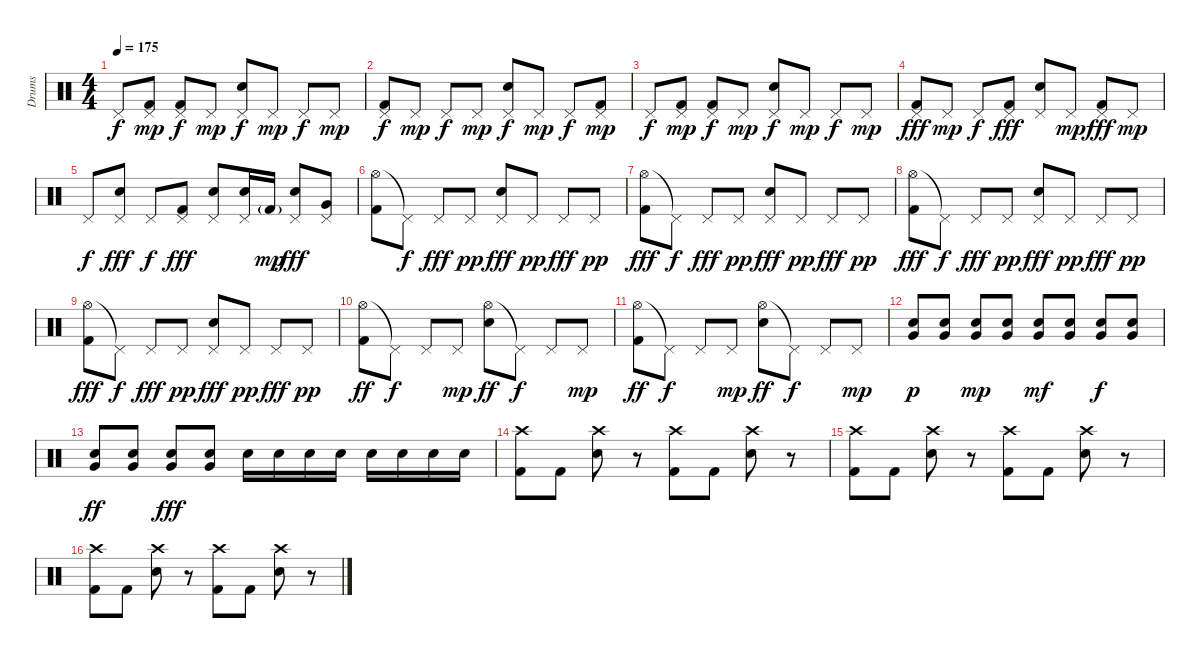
\track ("Drums" "Drums") {instrument percussion}
\staff {score}
\articulation defaults
\ts (4 4)
\tempo 175
\clef neutral
\ks c "Pedal Hi-Hat (hit)".8{dy f}
("Pedal Hi-Hat (hit)" "Kick (hit) 2").8{dy mp} ("Pedal Hi-Hat (hit)" "Kick (hit) 2").8{dy f} "Pedal Hi-Hat (hit)".8{dy mp} ("Pedal Hi-Hat (hit)" "Snare (hit) 2").8{dy f} "Pedal Hi-Hat (hit)".8{dy mp} "Pedal Hi-Hat (hit)".8{dy f} "Pedal Hi-Hat (hit)".8{dy mp} |
("Pedal Hi-Hat (hit)" "Kick (hit) 2").8{dy f} "Pedal Hi-Hat (hit)".8{dy mp} "Pedal Hi-Hat (hit)".8{dy f} "Pedal Hi-Hat (hit)".8{dy mp} ("Pedal Hi-Hat (hit)" "Snare (hit) 2").8{dy f} "Pedal Hi-Hat (hit)".8{dy mp} "Pedal Hi-Hat (hit)".8{dy f} ("Pedal Hi-Hat (hit)" "Kick (hit) 2").8{dy mp} |
"Pedal Hi-Hat (hit)".8{dy f} ("Pedal Hi-Hat (hit)" "Kick (hit) 2").8{dy mp} ("Pedal Hi-Hat (hit)" "Kick (hit) 2").8{dy f} "Pedal Hi-Hat (hit)".8{dy mp} ("Pedal Hi-Hat (hit)" "Snare (hit) 2").8{dy f} "Pedal Hi-Hat (hit)".8{dy mp} "Pedal Hi-Hat (hit)".8{dy f} "Pedal Hi-Hat (hit)".8{dy mp} |
("Pedal Hi-Hat (hit)" "Kick (hit) 2").8{dy fff} "Pedal Hi-Hat (hit)".8{dy mp} "Pedal Hi-Hat (hit)".8{dy f} ("Pedal Hi-Hat (hit)" "Kick (hit) 2").8{dy fff} ("Pedal Hi-Hat (hit)" "Snare (hit) 2").8 "Pedal Hi-Hat (hit)".8{dy mp} ("Pedal Hi-Hat (hit)" "Kick (hit) 2").8{dy fff} "Pedal Hi-Hat (hit)".8{dy mp} |
"Pedal Hi-Hat (hit)".8{dy f} ("Pedal Hi-Hat (hit)" "Snare (hit) 2").8{dy fff} "Pedal Hi-Hat (hit)".8{dy f} ("Pedal Hi-Hat (hit)" "Kick (hit) 2").8{dy fff} ("Pedal Hi-Hat (hit)" "Snare (hit) 2").8 ("Pedal Hi-Hat (hit)" "Snare (hit) 2").16 "Kick (hit) 2"{g}.16{dy mp} ("Pedal Hi-Hat (hit)" "Snare (hit) 2").8{dy fff} ("Pedal Hi-Hat (hit)" "Very Low Tom (hit)").8 |
("Hi-Hat (open)" "Kick (hit) 2").8 "Pedal Hi-Hat (hit)"{t}.8{dy f} "Pedal Hi-Hat (hit)".8{dy fff} "Pedal Hi-Hat (hit)".8{dy pp} ("Pedal Hi-Hat (hit)" "Snare (hit) 2").8{dy fff} "Pedal Hi-Hat (hit)".8{dy pp} "Pedal Hi-Hat (hit)".8{dy fff} "Pedal Hi-Hat (hit)".8{dy pp} |
("Hi-Hat (open)" "Kick (hit) 2").8{dy fff} "Pedal Hi-Hat (hit)"{t}.8{dy f} "Pedal Hi-Hat (hit)".8{dy fff} "Pedal Hi-Hat (hit)".8{dy pp} ("Pedal Hi-Hat (hit)" "Snare (hit) 2").8{dy fff} "Pedal Hi-Hat (hit)".8{dy pp} "Pedal Hi-Hat (hit)".8{dy fff} "Pedal Hi-Hat (hit)".8{dy pp} |
("Hi-Hat (open)" "Kick (hit) 2").8{dy fff} "Pedal Hi-Hat (hit)"{t}.8{dy f} "Pedal Hi-Hat (hit)".8{dy fff} "Pedal Hi-Hat (hit)".8{dy pp} ("Pedal Hi-Hat (hit)" "Snare (hit) 2").8{dy fff} "Pedal Hi-Hat (hit)".8{dy pp} "Pedal Hi-Hat (hit)".8{dy fff} "Pedal Hi-Hat (hit)".8{dy pp} |
("Hi-Hat (open)" "Kick (hit) 2").8{dy fff} "Pedal Hi-Hat (hit)"{t}.8{dy f} "Pedal Hi-Hat (hit)".8{dy fff} "Pedal Hi-Hat (hit)".8{dy pp} ("Pedal Hi-Hat (hit)" "Snare (hit) 2").8{dy fff} "Pedal Hi-Hat (hit)".8{dy pp} "Pedal Hi-Hat (hit)".8{dy fff} "Pedal Hi-Hat (hit)".8{dy pp} |
("Hi-Hat (open)" "Kick (hit) 2").8{dy ff} "Pedal Hi-Hat (hit)"{t}.8{dy f} "Pedal Hi-Hat (hit)".8 "Pedal Hi-Hat (hit)".8{dy mp} ("Hi-Hat (open)" "Snare (hit) 2").8{dy ff} "Pedal Hi-Hat (hit)"{t}.8{dy f} "Pedal Hi-Hat (hit)".8 "Pedal Hi-Hat (hit)".8{dy mp} |
("Hi-Hat (open)" "Kick (hit) 2").8{dy ff} "Pedal Hi-Hat (hit)"{t}.8{dy f} "Pedal Hi-Hat (hit)".8 "Pedal Hi-Hat (hit)".8{dy mp} ("Hi-Hat (open)" "Snare (hit) 2").8{dy ff} "Pedal Hi-Hat (hit)"{t}.8{dy f} "Pedal Hi-Hat (hit)".8 "Pedal Hi-Hat (hit)".8{dy mp} |
("Very Low Tom (hit)" "Snare (hit) 2").8{dy p} ("Very Low Tom (hit)" "Snare (hit) 2").8 ("Very Low Tom (hit)" "Snare (hit) 2").8{dy mp} ("Very Low Tom (hit)" "Snare (hit) 2").8 ("Very Low Tom (hit)" "Snare (hit) 2").8{dy mf} ("Very Low Tom (hit)" "Snare (hit) 2").8 ("Very Low Tom (hit)" "Snare (hit) 2").8{dy f} ("Very Low Tom (hit)" "Snare (hit) 2").8 |
("Very Low Tom (hit)" "Snare (hit) 2").8{dy ff} ("Very Low Tom (hit)" "Snare (hit) 2").8 ("Very Low Tom (hit)" "Snare (hit) 2").8{dy fff} ("Very Low Tom (hit)" "Snare (hit) 2").8 "Snare (hit) 2".16 "Snare (hit) 2".16 "Snare (hit) 2".16 "Snare (hit) 2".16 "Snare (hit) 2".16 "Snare (hit) 2".16 "Snare (hit) 2".16 "Snare (hit) 2".16 |
("Crash high (hit)" "Kick (hit) 2").8 "Kick (hit) 2".8 ("Crash high (hit)" "Snare (hit) 2").8 r.8 ("Crash high (hit)" "Kick (hit) 2").8 "Kick (hit) 2".8 ("Crash high (hit)" "Snare (hit) 2").8 r.8 |
("Crash high (hit)" "Kick (hit) 2").8 "Kick (hit) 2".8 ("Crash high (hit)" "Snare (hit) 2").8 r.8 ("Crash high (hit)" "Kick (hit) 2").8 "Kick (hit) 2".8 ("Crash high (hit)" "Snare (hit) 2").8 r.8 |
("Crash high (hit)" "Kick (hit) 2").8 "Kick (hit) 2".8 ("Crash high (hit)" "Snare (hit) 2").8 r.8 ("Crash high (hit)" "Kick (hit) 2").8 "Kick (hit) 2".8 ("Crash high (hit)" "Snare (hit) 2").8 r.8
